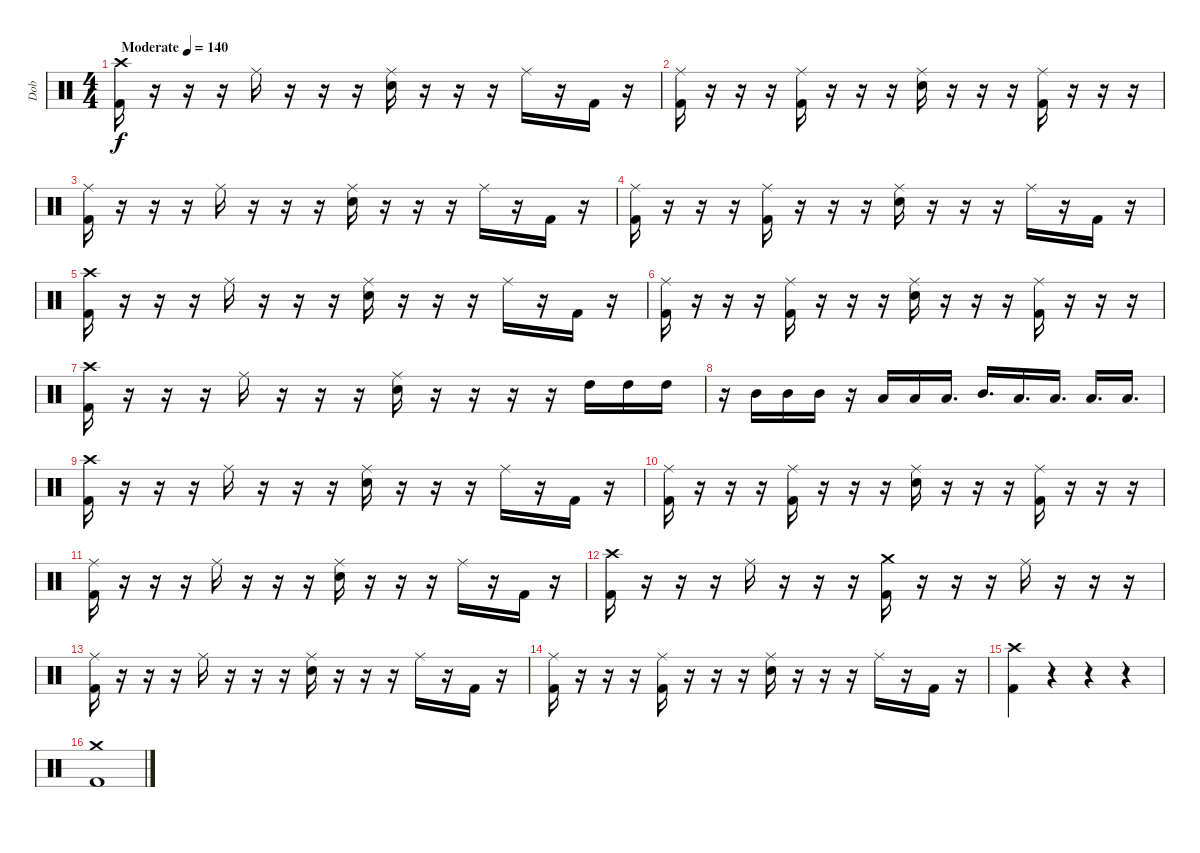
\track ("Dob" "Dob") {instrument percussion}
\staff {score}
\articulation defaults
\ts (4 4)
\tempo (140 "Moderate")
\clef neutral
\ks c
("Crash high (hit)" "Kick (hit) 2").16{dy f} r.16 r.16 r.16 "Ride (middle)".16 r.16 r.16 r.16 ("Electric Snare (hit)" "Ride (middle)").16 r.16 r.16 r.16 "Ride (middle)".16 r.16 "Kick (hit) 2".16 r.16 |
("Ride (middle)" "Kick (hit) 2").16 r.16 r.16 r.16 ("Ride (middle)" "Kick (hit) 2").16 r.16 r.16 r.16 ("Ride (middle)" "Electric Snare (hit)").16 r.16 r.16 r.16 ("Ride (middle)" "Kick (hit) 2").16 r.16 r.16 r.16 |
("Ride (middle)" "Kick (hit) 2").16 r.16 r.16 r.16 "Ride (middle)".16 r.16 r.16 r.16 ("Ride (middle)" "Electric Snare (hit)").16 r.16 r.16 r.16 "Ride (middle)".16 r.16 "Kick (hit) 2".16 r.16 |
("Ride (middle)" "Kick (hit) 2").16 r.16 r.16 r.16 ("Ride (middle)" "Kick (hit) 2").16 r.16 r.16 r.16 ("Ride (middle)" "Electric Snare (hit)").16 r.16 r.16 r.16 "Ride (middle)".16 r.16 "Kick (hit) 2".16 r.16 |
("Crash high (hit)" "Kick (hit) 2").16 r.16 r.16 r.16 "Ride (middle)".16 r.16 r.16 r.16 ("Electric Snare (hit)" "Ride (middle)").16 r.16 r.16 r.16 "Ride (middle)".16 r.16 "Kick (hit) 2".16 r.16 |
("Ride (middle)" "Kick (hit) 2").16 r.16 r.16 r.16 ("Ride (middle)" "Kick (hit) 2").16 r.16 r.16 r.16 ("Ride (middle)" "Electric Snare (hit)").16 r.16 r.16 r.16 ("Ride (middle)" "Kick (hit) 2").16 r.16 r.16 r.16 |
("Crash high (hit)" "Kick (hit) 2").16 r.16 r.16 r.16 "Ride (middle)".16 r.16 r.16 r.16 ("Electric Snare (hit)" "Ride (middle)").16 r.16 r.16 r.16 r.16 "High Tom (hit)".16 "High Tom (hit)".16 "High Tom (hit)".16 |
r.16 "Mid Tom (hit)".16 "Mid Tom (hit)".16 "Mid Tom (hit)".16 r.16 "Low Tom (hit)".16 "Low Tom (hit)".16 "Low Tom (hit)".16{d} "Mid Tom (hit)".16{d} "Low Tom (hit)".16{d} "Low Floor Tom (hit)".16{d} "Low Floor Tom (hit)".16{d} "Low Floor Tom (hit)".16{d} |
("Crash high (hit)" "Kick (hit) 2").16 r.16 r.16 r.16 "Ride (middle)".16 r.16 r.16 r.16 ("Electric Snare (hit)" "Ride (middle)").16 r.16 r.16 r.16 "Ride (middle)".16 r.16 "Kick (hit) 2".16 r.16 |
("Ride (middle)" "Kick (hit) 2").16 r.16 r.16 r.16 ("Ride (middle)" "Kick (hit) 2").16 r.16 r.16 r.16 ("Ride (middle)" "Electric Snare (hit)").16 r.16 r.16 r.16 ("Ride (middle)" "Kick (hit) 2").16 r.16 r.16 r.16 |
("Ride (middle)" "Kick (hit) 2").16 r.16 r.16 r.16 "Ride (middle)".16 r.16 r.16 r.16 ("Ride (middle)" "Electric Snare (hit)").16 r.16 r.16 r.16 "Ride (middle)".16 r.16 "Kick (hit) 2".16 r.16 |
("Crash high (hit)" "Kick (hit) 2").16 r.16 r.16 r.16 "Ride (middle)".16 r.16 r.16 r.16 ("Crash medium (hit)" "Kick (hit) 2").16 r.16 r.16 r.16 "Ride (middle)".16 r.16 r.16 r.16 |
("Ride (middle)" "Kick (hit) 2").16 r.16 r.16 r.16 "Ride (middle)".16 r.16 r.16 r.16 ("Ride (middle)" "Electric Snare (hit)").16 r.16 r.16 r.16 "Ride (middle)".16 r.16 "Kick (hit) 2".16 r.16 |
("Ride (middle)" "Kick (hit) 2").16 r.16 r.16 r.16 ("Ride (middle)" "Kick (hit) 2").16 r.16 r.16 r.16 ("Ride (middle)" "Electric Snare (hit)").16 r.16 r.16 r.16 "Ride (middle)".16 r.16 "Kick (hit) 2".16 r.16 |
("Crash high (hit)" "Kick (hit) 2").4 r.4 r.4 r.4 |
("Crash medium (hit)" "Kick (hit) 2").1
